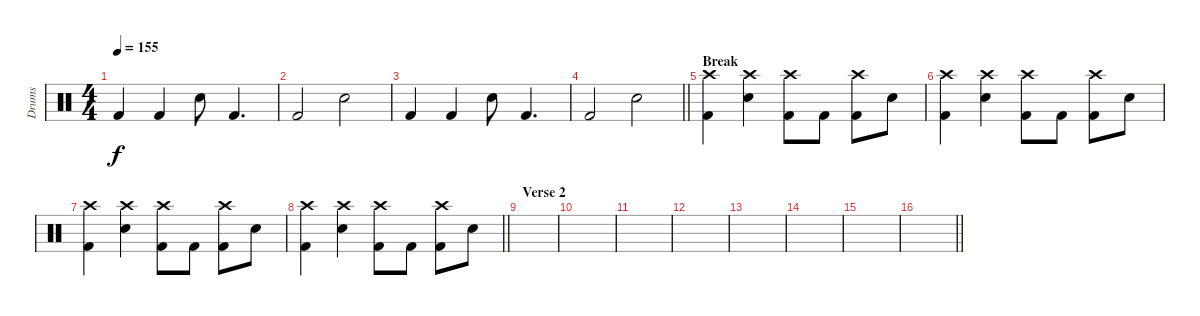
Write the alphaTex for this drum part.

\track ("Drums" "Drums") {instrument percussion}
\staff {score}
\articulation defaults
\ts (4 4)
\tempo 155
\clef neutral
\ks c "Kick (hit) 2".4{dy f} "Kick (hit) 2".4 "Snare (hit) 2".8 "Kick (hit) 2".4{d}
|
"Kick (hit) 2".2 "Snare (hit) 2".2 |
"Kick (hit) 2".4 "Kick (hit) 2".4 "Snare (hit) 2".8 "Kick (hit) 2".4{d} |
\barLineRight lightlight "Kick (hit) 2".2 "Snare (hit) 2".2
|
\section ("" "Break")
("Crash high (hit)" "Kick (hit) 2").4 ("Crash high (hit)" "Snare (hit) 2").4 ("Crash high (hit)" "Kick (hit) 2").8 "Kick (hit) 2".8 ("Crash high (hit)" "Kick (hit) 2").8 "Snare (hit) 2".8 |
("Crash high (hit)" "Kick (hit) 2").4 ("Crash high (hit)" "Snare (hit) 2").4 ("Crash high (hit)" "Kick (hit) 2").8 "Kick (hit) 2".8 ("Crash high (hit)" "Kick (hit) 2").8 "Snare (hit) 2".8 |
("Crash high (hit)" "Kick (hit) 2").4 ("Crash high (hit)" "Snare (hit) 2").4 ("Crash high (hit)" "Kick (hit) 2").8 "Kick (hit) 2".8 ("Crash high (hit)" "Kick (hit) 2").8 "Snare (hit) 2".8 |
\barLineRight lightlight
("Crash high (hit)" "Kick (hit) 2").4 ("Crash high (hit)" "Snare (hit) 2").4 ("Crash high (hit)" "Kick (hit) 2").8 "Kick (hit) 2".8 ("Crash high (hit)" "Kick (hit) 2").8 "Snare (hit) 2".8 |
\section ("" "Verse 2")
|
|
|
|
|
|
|
\barLineRight lightlight
